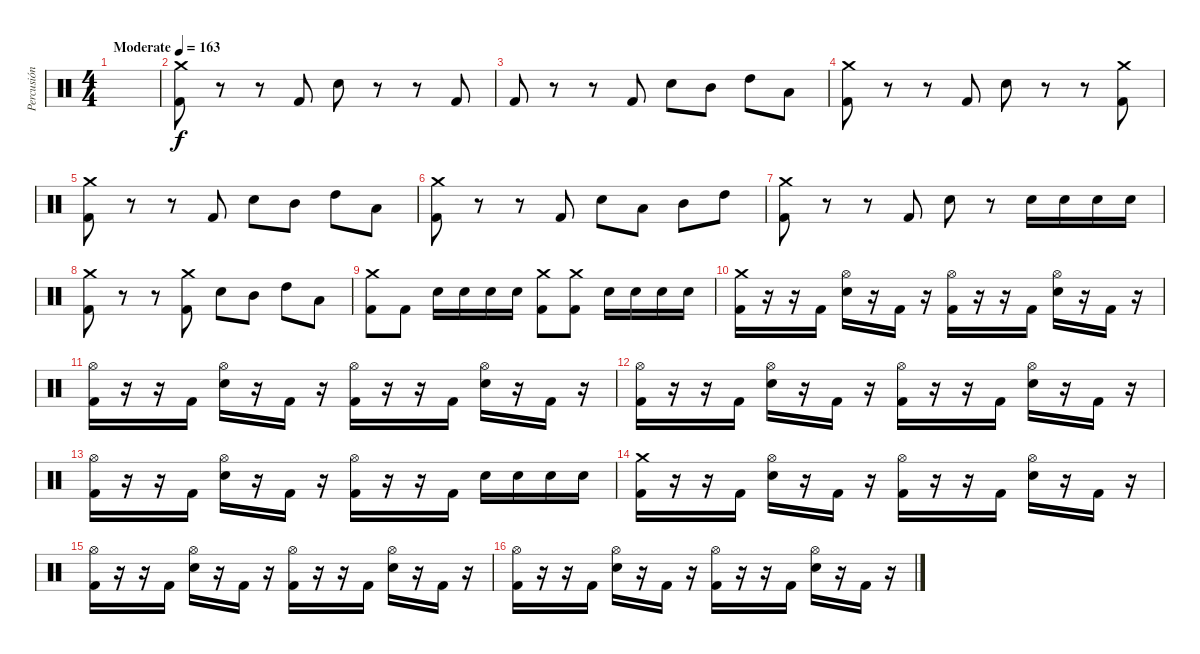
\track ("Percusión" "Percusión") {instrument percussion}
\staff {score}
\articulation defaults
\ts (4 4)
\tempo (163 "Moderate")
\clef neutral
\ks c
|
("Crash medium (hit)" "Kick (hit) 2").8 r.8 r.8 "Kick (hit) 2".8 "Snare (hit) 2".8 r.8 r.8 "Kick (hit) 2".8 |
"Kick (hit) 2".8 r.8 r.8 "Kick (hit) 2".8 "Snare (hit) 2".8 "Mid Tom (hit)".8 "High Tom (hit)".8 "Low Tom (hit)".8 |
("Crash medium (hit)" "Kick (hit) 2").8 r.8 r.8 "Kick (hit) 2".8 "Snare (hit) 2".8 r.8 r.8 ("Crash medium (hit)" "Kick (hit) 2").8 |
("Crash medium (hit)" "Kick (hit) 2").8 r.8 r.8 "Kick (hit) 2".8 "Snare (hit) 2".8 "Mid Tom (hit)".8 "High Tom (hit)".8 "Low Tom (hit)".8 |
("Crash medium (hit)" "Kick (hit) 2").8 r.8 r.8 "Kick (hit) 2".8 "Snare (hit) 2".8 "Low Tom (hit)".8 "Mid Tom (hit)".8 "High Tom (hit)".8 |
("Crash medium (hit)" "Kick (hit) 2").8 r.8 r.8 "Kick (hit) 2".8 "Snare (hit) 2".8 r.8 "Snare (hit) 2".16 "Snare (hit) 2".16 "Snare (hit) 2".16 "Snare (hit) 2".16 |
("Crash medium (hit)" "Kick (hit) 2").8 r.8 r.8 ("Crash medium (hit)" "Kick (hit) 2").8 "Snare (hit) 2".8 "Mid Tom (hit)".8 "High Tom (hit)".8 "Low Tom (hit)".8 |
("Crash medium (hit)" "Kick (hit) 2").8 "Kick (hit) 2".8 "Snare (hit) 2".16 "Snare (hit) 2".16 "Snare (hit) 2".16 "Snare (hit) 2".16 ("Crash medium (hit)" "Kick (hit) 2").8 ("Crash medium (hit)" "Kick (hit) 2").8 "Snare (hit) 2".16 "Snare (hit) 2".16 "Snare (hit) 2".16 "Snare (hit) 2".16 |
("Crash medium (hit)" "Kick (hit) 2").16 r.16 r.16 "Kick (hit) 2".16 ("Hi-Hat (open)" "Snare (hit) 2").16 r.16 "Kick (hit) 2".16 r.16 ("Hi-Hat (open)" "Kick (hit) 2").16 r.16 r.16 "Kick (hit) 2".16 ("Hi-Hat (open)" "Snare (hit) 2").16 r.16 "Kick (hit) 2".16 r.16 |
("Hi-Hat (open)" "Kick (hit) 2").16 r.16 r.16 "Kick (hit) 2".16 ("Hi-Hat (open)" "Snare (hit) 2").16 r.16 "Kick (hit) 2".16 r.16 ("Hi-Hat (open)" "Kick (hit) 2").16 r.16 r.16 "Kick (hit) 2".16 ("Hi-Hat (open)" "Snare (hit) 2").16 r.16 "Kick (hit) 2".16 r.16 |
("Hi-Hat (open)" "Kick (hit) 2").16 r.16 r.16 "Kick (hit) 2".16 ("Hi-Hat (open)" "Snare (hit) 2").16 r.16 "Kick (hit) 2".16 r.16 ("Hi-Hat (open)" "Kick (hit) 2").16 r.16 r.16 "Kick (hit) 2".16 ("Hi-Hat (open)" "Snare (hit) 2").16 r.16 "Kick (hit) 2".16 r.16 |
("Hi-Hat (open)" "Kick (hit) 2").16 r.16 r.16 "Kick (hit) 2".16 ("Hi-Hat (open)" "Snare (hit) 2").16 r.16 "Kick (hit) 2".16 r.16 ("Hi-Hat (open)" "Kick (hit) 2").16 r.16 r.16 "Kick (hit) 2".16 "Snare (hit) 2".16 "Snare (hit) 2".16 "Snare (hit) 2".16 "Snare (hit) 2".16 |
("Crash medium (hit)" "Kick (hit) 2").16 r.16 r.16 "Kick (hit) 2".16 ("Hi-Hat (open)" "Snare (hit) 2").16 r.16 "Kick (hit) 2".16 r.16 ("Hi-Hat (open)" "Kick (hit) 2").16 r.16 r.16 "Kick (hit) 2".16 ("Hi-Hat (open)" "Snare (hit) 2").16 r.16 "Kick (hit) 2".16 r.16 |
("Hi-Hat (open)" "Kick (hit) 2").16 r.16 r.16 "Kick (hit) 2".16 ("Hi-Hat (open)" "Snare (hit) 2").16 r.16 "Kick (hit) 2".16 r.16 ("Hi-Hat (open)" "Kick (hit) 2").16 r.16 r.16 "Kick (hit) 2".16 ("Hi-Hat (open)" "Snare (hit) 2").16 r.16 "Kick (hit) 2".16 r.16 |
("Hi-Hat (open)" "Kick (hit) 2").16 r.16 r.16 "Kick (hit) 2".16 ("Hi-Hat (open)" "Snare (hit) 2").16 r.16 "Kick (hit) 2".16 r.16 ("Hi-Hat (open)" "Kick (hit) 2").16 r.16 r.16 "Kick (hit) 2".16 ("Hi-Hat (open)" "Snare (hit) 2").16 r.16 "Kick (hit) 2".16 r.16
